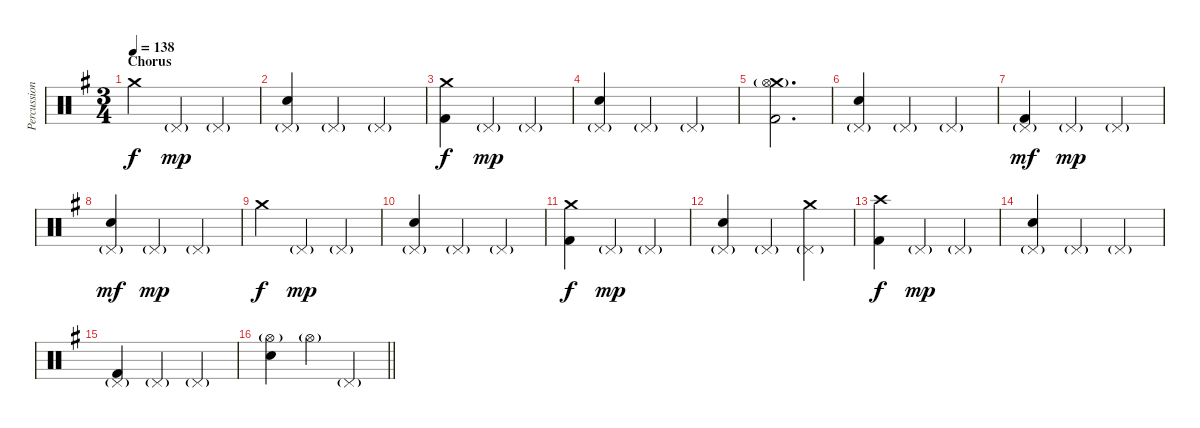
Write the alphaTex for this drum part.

\track ("Percussion (Thomen Stauch)" "Percussion") {instrument percussion}
\staff {score}
\articulation defaults
\ts (3 4)
\section ("" "Chorus")
\tempo 138
\clef neutral
\ks eminor "Crash medium (hit)".4{dy f} "Pedal Hi-Hat (hit)"{g}.4{dy mp} "Pedal Hi-Hat (hit)"{g}.4
|
("Pedal Hi-Hat (hit)"{g} "Snare (hit) 2").4 "Pedal Hi-Hat (hit)"{g}.4 "Pedal Hi-Hat (hit)"{g}.4 |
("Crash medium (hit)" "Kick (hit) 2").4{dy f} "Pedal Hi-Hat (hit)"{g}.4{dy mp} "Pedal Hi-Hat (hit)"{g}.4 |
("Pedal Hi-Hat (hit)"{g} "Snare (hit) 2").4 "Pedal Hi-Hat (hit)"{g}.4 "Pedal Hi-Hat (hit)"{g}.4 |
("Crash medium (hit)" "Hi-Hat (open)"{g} "Kick (hit) 2").2{d} |
("Pedal Hi-Hat (hit)"{g} "Snare (hit) 2").4 "Pedal Hi-Hat (hit)"{g}.4 "Pedal Hi-Hat (hit)"{g}.4 |
("Pedal Hi-Hat (hit)"{g} "Kick (hit) 2").4{dy mf} "Pedal Hi-Hat (hit)"{g}.4{dy mp} "Pedal Hi-Hat (hit)"{g}.4 |
("Pedal Hi-Hat (hit)"{g} "Snare (hit) 2").4{dy mf} "Pedal Hi-Hat (hit)"{g}.4{dy mp} "Pedal Hi-Hat (hit)"{g}.4 |
"Crash medium (hit)".4{dy f} "Pedal Hi-Hat (hit)"{g}.4{dy mp} "Pedal Hi-Hat (hit)"{g}.4 |
("Pedal Hi-Hat (hit)"{g} "Snare (hit) 2").4 "Pedal Hi-Hat (hit)"{g}.4 "Pedal Hi-Hat (hit)"{g}.4 |
("Crash medium (hit)" "Kick (hit) 2").4{dy f} "Pedal Hi-Hat (hit)"{g}.4{dy mp} "Pedal Hi-Hat (hit)"{g}.4 |
("Pedal Hi-Hat (hit)"{g} "Snare (hit) 2").4 "Pedal Hi-Hat (hit)"{g}.4 ("Crash medium (hit)" "Pedal Hi-Hat (hit)"{g}).4 |
("Crash high (hit)" "Kick (hit) 2").4{dy f} "Pedal Hi-Hat (hit)"{g}.4{dy mp} "Pedal Hi-Hat (hit)"{g}.4 |
("Pedal Hi-Hat (hit)"{g} "Snare (hit) 2").4 "Pedal Hi-Hat (hit)"{g}.4 "Pedal Hi-Hat (hit)"{g}.4 |
("Pedal Hi-Hat (hit)"{g} "Kick (hit) 2").4 "Pedal Hi-Hat (hit)"{g}.4 "Pedal Hi-Hat (hit)"{g}.4 |
\barLineRight lightlight
("Hi-Hat (open)"{g} "Snare (hit) 2").4 "Hi-Hat (open)"{g}.4 "Pedal Hi-Hat (hit)"{g}.4
